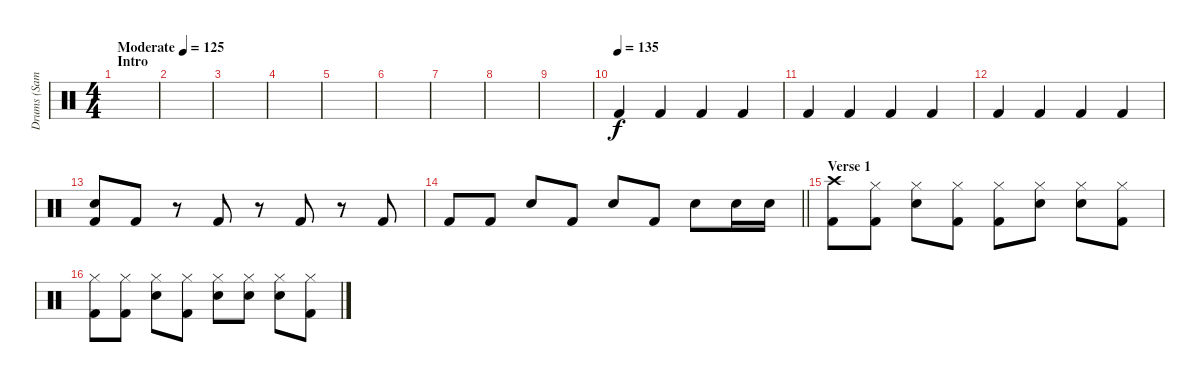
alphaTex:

\track ("Drums (Sam Fogarino)" "Drums (Sam") {instrument percussion}
\staff {score}
\articulation defaults
\ts (4 4)
\section ("" "Intro")
\tempo (125 "Moderate")
\clef neutral
\ks c
|
|
|
|
|
|
|
|
|
\tempo (135)
"Kick (hit) 2".4 "Kick (hit) 2".4 "Kick (hit) 2".4 "Kick (hit) 2".4 |
"Kick (hit) 2".4 "Kick (hit) 2".4 "Kick (hit) 2".4 "Kick (hit) 2".4 |
"Kick (hit) 2".4 "Kick (hit) 2".4 "Kick (hit) 2".4 "Kick (hit) 2".4 |
("Snare (hit) 2" "Kick (hit) 2").8 "Kick (hit) 2".8 r.8 "Kick (hit) 2".8 r.8 "Kick (hit) 2".8 r.8 "Kick (hit) 2".8 |
\barLineRight lightlight "Kick (hit) 2".8 "Kick (hit) 2".8 "Snare (hit) 2".8 "Kick (hit) 2".8 "Snare (hit) 2".8 "Kick (hit) 2".8 "Snare (hit) 2".8 "Snare (hit) 2".16 "Snare (hit) 2".16
|
\section ("" "Verse 1")
("Crash high (hit)" "Kick (hit) 2").8 ("Hi-Hat (closed)" "Kick (hit) 2").8 ("Hi-Hat (closed)" "Snare (hit) 2").8 ("Hi-Hat (closed)" "Kick (hit) 2").8 ("Hi-Hat (closed)" "Kick (hit) 2").8 ("Hi-Hat (closed)" "Snare (hit) 2").8 ("Hi-Hat (closed)" "Snare (hit) 2").8 ("Hi-Hat (closed)" "Kick (hit) 2").8 |
("Hi-Hat (closed)" "Kick (hit) 2").8 ("Hi-Hat (closed)" "Kick (hit) 2").8 ("Hi-Hat (closed)" "Snare (hit) 2").8 ("Hi-Hat (closed)" "Kick (hit) 2").8 ("Hi-Hat (closed)" "Snare (hit) 2").8 ("Hi-Hat (closed)" "Snare (hit) 2").8 ("Hi-Hat (closed)" "Snare (hit) 2").8 ("Hi-Hat (closed)" "Kick (hit) 2").8
